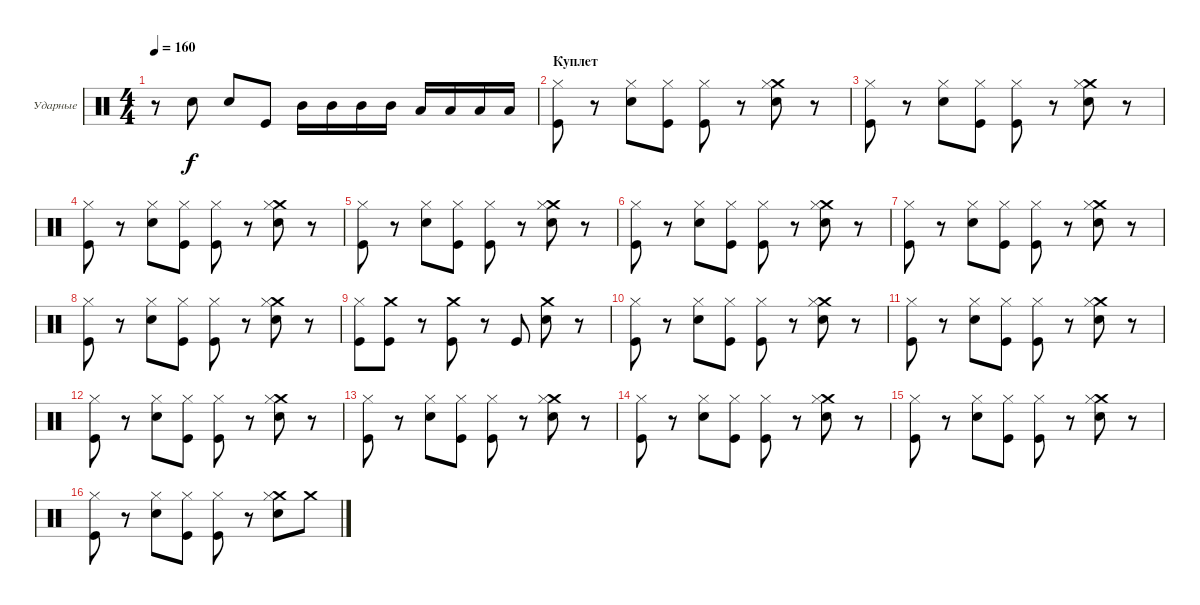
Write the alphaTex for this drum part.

\bracketExtendMode groupsimilarinstruments
\firstSystemTrackNameOrientation horizontal
\otherSystemsTrackNameOrientation horizontal
\track ("Александр Львов" "Ударные") {instrument percussion}
\staff {score}
\articulation defaults
\ts (4 4)
\tempo 160
\clef neutral
\ks c
r.8{dy f} "Snare (hit) 2".8 "Snare (hit) 2".8 "Kick (hit)".8 "Mid Tom (hit)".16 "Mid Tom (hit)".16 "Mid Tom (hit)".16 "Mid Tom (hit)".16 "Low Tom (hit)".16 "Low Tom (hit)".16 "Low Tom (hit)".16 "Low Tom (hit)".16 |
\section ("" "Куплет")
("Kick (hit)" "Hi-Hat (closed)").8 r.8 ("Snare (hit) 2" "Hi-Hat (closed)").8 ("Kick (hit)" "Hi-Hat (closed)").8 ("Kick (hit)" "Hi-Hat (closed)").8 r.8 ("Snare (hit) 2" "Crash medium (hit)" "Hi-Hat (closed)").8 r.8 |
("Kick (hit)" "Hi-Hat (closed)").8 r.8 ("Snare (hit) 2" "Hi-Hat (closed)").8 ("Kick (hit)" "Hi-Hat (closed)").8 ("Kick (hit)" "Hi-Hat (closed)").8 r.8 ("Snare (hit) 2" "Crash medium (hit)" "Hi-Hat (closed)").8 r.8 |
("Kick (hit)" "Hi-Hat (closed)").8 r.8 ("Snare (hit) 2" "Hi-Hat (closed)").8 ("Kick (hit)" "Hi-Hat (closed)").8 ("Kick (hit)" "Hi-Hat (closed)").8 r.8 ("Snare (hit) 2" "Crash medium (hit)" "Hi-Hat (closed)").8 r.8 |
("Kick (hit)" "Hi-Hat (closed)").8 r.8 ("Snare (hit) 2" "Hi-Hat (closed)").8 ("Kick (hit)" "Hi-Hat (closed)").8 ("Kick (hit)" "Hi-Hat (closed)").8 r.8 ("Snare (hit) 2" "Crash medium (hit)" "Hi-Hat (closed)").8 r.8 |
("Kick (hit)" "Hi-Hat (closed)").8 r.8 ("Snare (hit) 2" "Hi-Hat (closed)").8 ("Kick (hit)" "Hi-Hat (closed)").8 ("Kick (hit)" "Hi-Hat (closed)").8 r.8 ("Snare (hit) 2" "Crash medium (hit)" "Hi-Hat (closed)").8 r.8 |
("Kick (hit)" "Hi-Hat (closed)").8 r.8 ("Snare (hit) 2" "Hi-Hat (closed)").8 ("Kick (hit)" "Hi-Hat (closed)").8 ("Kick (hit)" "Hi-Hat (closed)").8 r.8 ("Snare (hit) 2" "Crash medium (hit)" "Hi-Hat (closed)").8 r.8 |
("Kick (hit)" "Hi-Hat (closed)").8 r.8 ("Snare (hit) 2" "Hi-Hat (closed)").8 ("Kick (hit)" "Hi-Hat (closed)").8 ("Kick (hit)" "Hi-Hat (closed)").8 r.8 ("Snare (hit) 2" "Crash medium (hit)" "Hi-Hat (closed)").8 r.8 |
("Kick (hit)" "Hi-Hat (closed)").8 ("Kick (hit)" "Crash medium (hit)").8 r.8 ("Kick (hit)" "Crash medium (hit)").8 r.8 "Kick (hit)".8 ("Snare (hit) 2" "Crash medium (hit)").8 r.8 |
("Kick (hit)" "Hi-Hat (closed)").8 r.8 ("Snare (hit) 2" "Hi-Hat (closed)").8 ("Kick (hit)" "Hi-Hat (closed)").8 ("Kick (hit)" "Hi-Hat (closed)").8 r.8 ("Snare (hit) 2" "Crash medium (hit)" "Hi-Hat (closed)").8 r.8 |
("Kick (hit)" "Hi-Hat (closed)").8 r.8 ("Snare (hit) 2" "Hi-Hat (closed)").8 ("Kick (hit)" "Hi-Hat (closed)").8 ("Kick (hit)" "Hi-Hat (closed)").8 r.8 ("Snare (hit) 2" "Crash medium (hit)" "Hi-Hat (closed)").8 r.8 |
("Kick (hit)" "Hi-Hat (closed)").8 r.8 ("Snare (hit) 2" "Hi-Hat (closed)").8 ("Kick (hit)" "Hi-Hat (closed)").8 ("Kick (hit)" "Hi-Hat (closed)").8 r.8 ("Snare (hit) 2" "Crash medium (hit)" "Hi-Hat (closed)").8 r.8 |
("Kick (hit)" "Hi-Hat (closed)").8 r.8 ("Snare (hit) 2" "Hi-Hat (closed)").8 ("Kick (hit)" "Hi-Hat (closed)").8 ("Kick (hit)" "Hi-Hat (closed)").8 r.8 ("Snare (hit) 2" "Crash medium (hit)" "Hi-Hat (closed)").8 r.8 |
("Kick (hit)" "Hi-Hat (closed)").8 r.8 ("Snare (hit) 2" "Hi-Hat (closed)").8 ("Kick (hit)" "Hi-Hat (closed)").8 ("Kick (hit)" "Hi-Hat (closed)").8 r.8 ("Snare (hit) 2" "Crash medium (hit)" "Hi-Hat (closed)").8 r.8 |
("Kick (hit)" "Hi-Hat (closed)").8 r.8 ("Snare (hit) 2" "Hi-Hat (closed)").8 ("Kick (hit)" "Hi-Hat (closed)").8 ("Kick (hit)" "Hi-Hat (closed)").8 r.8 ("Snare (hit) 2" "Crash medium (hit)" "Hi-Hat (closed)").8 r.8 |
("Kick (hit)" "Hi-Hat (closed)").8 r.8 ("Snare (hit) 2" "Hi-Hat (closed)").8 ("Kick (hit)" "Hi-Hat (closed)").8 ("Kick (hit)" "Hi-Hat (closed)").8 r.8 ("Snare (hit) 2" "Crash medium (hit)" "Hi-Hat (closed)").8 "Crash medium (hit)".8
